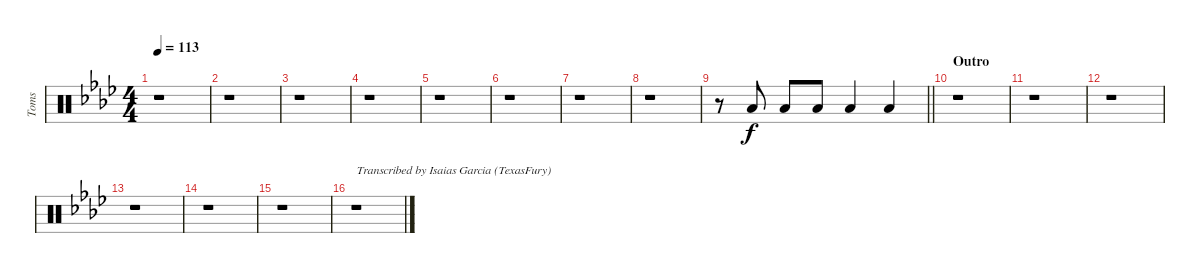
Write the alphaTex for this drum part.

\track ("Toms" "Toms") {instrument percussion}
\staff {score}
\articulation defaults
\ts (4 4)
\tempo 113
\clef neutral
\ks fminor
r.1{dy f} |
r.1 |
r.1 |
r.1 |
r.1 |
r.1 |
r.1 |
r.1 |
\barLineRight lightlight
r.8 "Low Tom (hit)".8{beam Up} "Low Tom (hit)".8{beam Up} "Low Tom (hit)".8{beam Up} "Low Tom (hit)".4{beam Up} "Low Tom (hit)".4{beam Up} |
\section ("" "Outro")
r.1 |
r.1 |
r.1 |
r.1 |
r.1 |
r.1 |
r.1{txt "Transcribed by Isaias Garcia (TexasFury)"}
